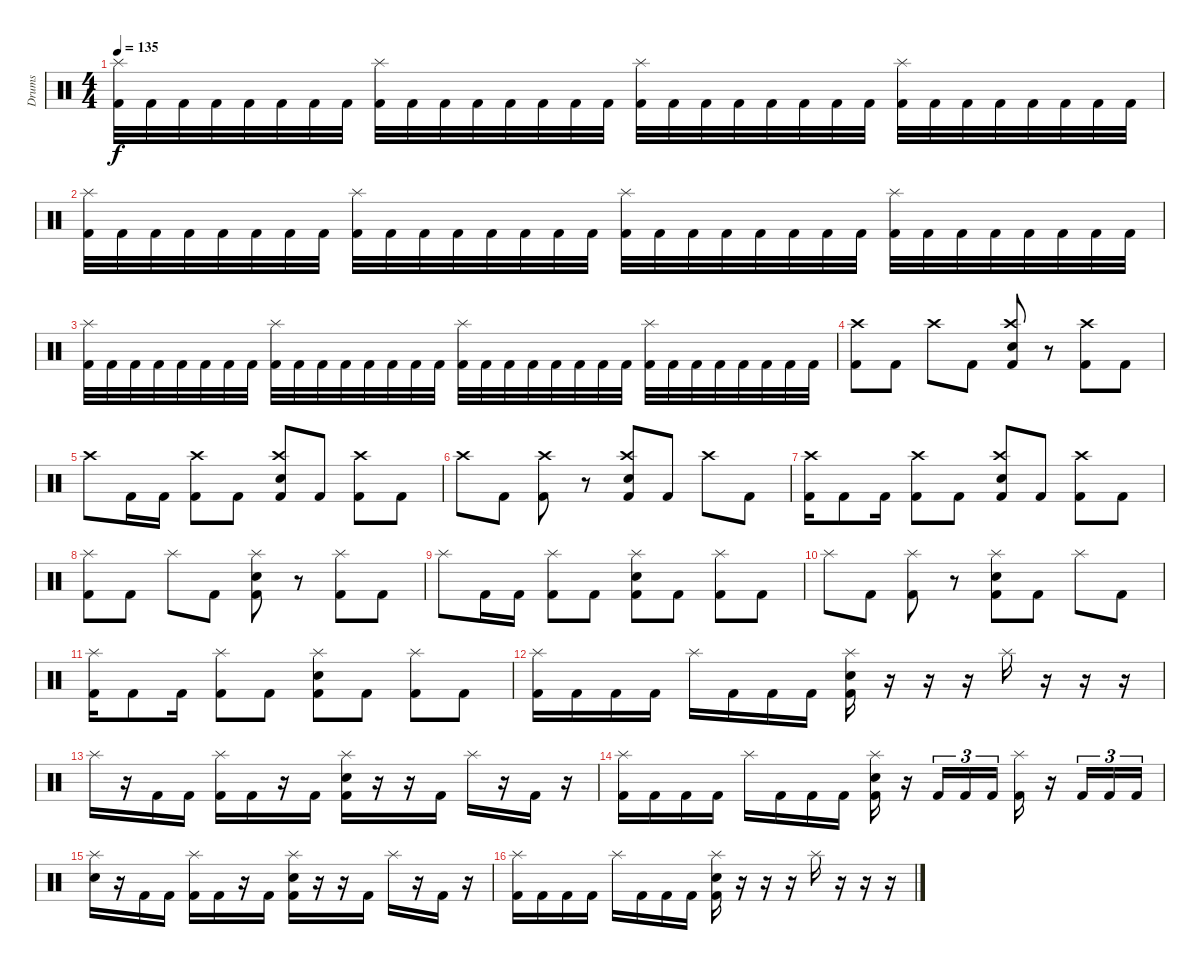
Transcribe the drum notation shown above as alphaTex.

\track ("Drums" "Drums") {instrument percussion}
\staff {score}
\articulation defaults
\ts (4 4)
\tempo 135
\clef neutral
\ks c
("Splash (hit)" "Kick (hit) 2").32{dy f} "Kick (hit) 2".32 "Kick (hit) 2".32 "Kick (hit) 2".32 "Kick (hit) 2".32 "Kick (hit) 2".32 "Kick (hit) 2".32 "Kick (hit) 2".32 ("Splash (hit)" "Kick (hit) 2").32 "Kick (hit) 2".32 "Kick (hit) 2".32 "Kick (hit) 2".32 "Kick (hit) 2".32 "Kick (hit) 2".32 "Kick (hit) 2".32 "Kick (hit) 2".32 ("Splash (hit)" "Kick (hit) 2").32 "Kick (hit) 2".32 "Kick (hit) 2".32 "Kick (hit) 2".32 "Kick (hit) 2".32 "Kick (hit) 2".32 "Kick (hit) 2".32 "Kick (hit) 2".32 ("Splash (hit)" "Kick (hit) 2").32 "Kick (hit) 2".32 "Kick (hit) 2".32 "Kick (hit) 2".32 "Kick (hit) 2".32 "Kick (hit) 2".32 "Kick (hit) 2".32 "Kick (hit) 2".32 |
("Splash (hit)" "Kick (hit) 2").32 "Kick (hit) 2".32 "Kick (hit) 2".32 "Kick (hit) 2".32 "Kick (hit) 2".32 "Kick (hit) 2".32 "Kick (hit) 2".32 "Kick (hit) 2".32 ("Splash (hit)" "Kick (hit) 2").32 "Kick (hit) 2".32 "Kick (hit) 2".32 "Kick (hit) 2".32 "Kick (hit) 2".32 "Kick (hit) 2".32 "Kick (hit) 2".32 "Kick (hit) 2".32 ("Splash (hit)" "Kick (hit) 2").32 "Kick (hit) 2".32 "Kick (hit) 2".32 "Kick (hit) 2".32 "Kick (hit) 2".32 "Kick (hit) 2".32 "Kick (hit) 2".32 "Kick (hit) 2".32 ("Splash (hit)" "Kick (hit) 2").32 "Kick (hit) 2".32 "Kick (hit) 2".32 "Kick (hit) 2".32 "Kick (hit) 2".32 "Kick (hit) 2".32 "Kick (hit) 2".32 "Kick (hit) 2".32 |
("Splash (hit)" "Kick (hit) 2").32 "Kick (hit) 2".32 "Kick (hit) 2".32 "Kick (hit) 2".32 "Kick (hit) 2".32 "Kick (hit) 2".32 "Kick (hit) 2".32 "Kick (hit) 2".32 ("Splash (hit)" "Kick (hit) 2").32 "Kick (hit) 2".32 "Kick (hit) 2".32 "Kick (hit) 2".32 "Kick (hit) 2".32 "Kick (hit) 2".32 "Kick (hit) 2".32 "Kick (hit) 2".32 ("Splash (hit)" "Kick (hit) 2").32 "Kick (hit) 2".32 "Kick (hit) 2".32 "Kick (hit) 2".32 "Kick (hit) 2".32 "Kick (hit) 2".32 "Kick (hit) 2".32 "Kick (hit) 2".32 ("Splash (hit)" "Kick (hit) 2").32 "Kick (hit) 2".32 "Kick (hit) 2".32 "Kick (hit) 2".32 "Kick (hit) 2".32 "Kick (hit) 2".32 "Kick (hit) 2".32 "Kick (hit) 2".32 |
("Crash high (hit)" "Kick (hit) 2").8 "Kick (hit) 2".8 "Crash high (hit)".8 "Kick (hit) 2".8 ("Crash high (hit)" "Electric Snare (hit)" "Kick (hit) 2").8 r.8 ("Crash high (hit)" "Kick (hit) 2").8 "Kick (hit) 2".8 |
"Crash high (hit)".8 "Kick (hit) 2".16 "Kick (hit) 2".16 ("Crash high (hit)" "Kick (hit) 2").8 "Kick (hit) 2".8 ("Crash high (hit)" "Electric Snare (hit)" "Kick (hit) 2").8 "Kick (hit) 2".8 ("Crash high (hit)" "Kick (hit) 2").8 "Kick (hit) 2".8 |
"Crash high (hit)".8 "Kick (hit) 2".8 ("Crash high (hit)" "Kick (hit) 2").8 r.8 ("Crash high (hit)" "Electric Snare (hit)" "Kick (hit) 2").8 "Kick (hit) 2".8 "Crash high (hit)".8 "Kick (hit) 2".8 |
("Crash high (hit)" "Kick (hit) 2").16 "Kick (hit) 2".8 "Kick (hit) 2".16 ("Crash high (hit)" "Kick (hit) 2").8 "Kick (hit) 2".8 ("Crash high (hit)" "Electric Snare (hit)" "Kick (hit) 2").8 "Kick (hit) 2".8 ("Crash high (hit)" "Kick (hit) 2").8 "Kick (hit) 2".8 |
("Splash (hit)" "Kick (hit) 2").8 "Kick (hit) 2".8 "Splash (hit)".8 "Kick (hit) 2".8 ("Splash (hit)" "Electric Snare (hit)" "Kick (hit) 2").8 r.8 ("Splash (hit)" "Kick (hit) 2").8 "Kick (hit) 2".8 |
"Splash (hit)".8 "Kick (hit) 2".16 "Kick (hit) 2".16 ("Splash (hit)" "Kick (hit) 2").8 "Kick (hit) 2".8 ("Splash (hit)" "Electric Snare (hit)" "Kick (hit) 2").8 "Kick (hit) 2".8 ("Splash (hit)" "Kick (hit) 2").8 "Kick (hit) 2".8 |
"Splash (hit)".8 "Kick (hit) 2".8 ("Splash (hit)" "Kick (hit) 2").8 r.8 ("Splash (hit)" "Electric Snare (hit)" "Kick (hit) 2").8 "Kick (hit) 2".8 "Splash (hit)".8 "Kick (hit) 2".8 |
("Splash (hit)" "Kick (hit) 2").16 "Kick (hit) 2".8 "Kick (hit) 2".16 ("Splash (hit)" "Kick (hit) 2").8 "Kick (hit) 2".8 ("Splash (hit)" "Electric Snare (hit)" "Kick (hit) 2").8 "Kick (hit) 2".8 ("Splash (hit)" "Kick (hit) 2").8 "Kick (hit) 2".8 |
("Splash (hit)" "Kick (hit) 2").16 "Kick (hit) 2".16 "Kick (hit) 2".16 "Kick (hit) 2".16 "Splash (hit)".16 "Kick (hit) 2".16 "Kick (hit) 2".16 "Kick (hit) 2".16 ("Splash (hit)" "Electric Snare (hit)" "Kick (hit) 2").16 r.16 r.16 r.16 "Splash (hit)".16 r.16 r.16 r.16 |
"Splash (hit)".16 r.16 "Kick (hit) 2".16 "Kick (hit) 2".16 ("Splash (hit)" "Kick (hit) 2").16 "Kick (hit) 2".16 r.16 "Kick (hit) 2".16 ("Splash (hit)" "Electric Snare (hit)" "Kick (hit) 2").16 r.16 r.16 "Kick (hit) 2".16 "Splash (hit)".16 r.16 "Kick (hit) 2".16 r.16 |
("Splash (hit)" "Kick (hit) 2").16 "Kick (hit) 2".16 "Kick (hit) 2".16 "Kick (hit) 2".16 "Splash (hit)".16 "Kick (hit) 2".16 "Kick (hit) 2".16 "Kick (hit) 2".16 ("Splash (hit)" "Electric Snare (hit)" "Kick (hit) 2").16 r.16 "Kick (hit) 2".16{tu (3 2)} "Kick (hit) 2".16{tu (3 2)} "Kick (hit) 2".16{tu (3 2)} ("Splash (hit)" "Kick (hit) 2").16 r.16 "Kick (hit) 2".16{tu (3 2)} "Kick (hit) 2".16{tu (3 2)} "Kick (hit) 2".16{tu (3 2)} |
("Splash (hit)" "Electric Snare (hit)").16 r.16 "Kick (hit) 2".16 "Kick (hit) 2".16 ("Splash (hit)" "Kick (hit) 2").16 "Kick (hit) 2".16 r.16 "Kick (hit) 2".16 ("Splash (hit)" "Electric Snare (hit)" "Kick (hit) 2").16 r.16 r.16 "Kick (hit) 2".16 "Splash (hit)".16 r.16 "Kick (hit) 2".16 r.16 |
("Splash (hit)" "Kick (hit) 2").16 "Kick (hit) 2".16 "Kick (hit) 2".16 "Kick (hit) 2".16 "Splash (hit)".16 "Kick (hit) 2".16 "Kick (hit) 2".16 "Kick (hit) 2".16 ("Splash (hit)" "Electric Snare (hit)" "Kick (hit) 2").16 r.16 r.16 r.16 "Splash (hit)".16 r.16 r.16 r.16
